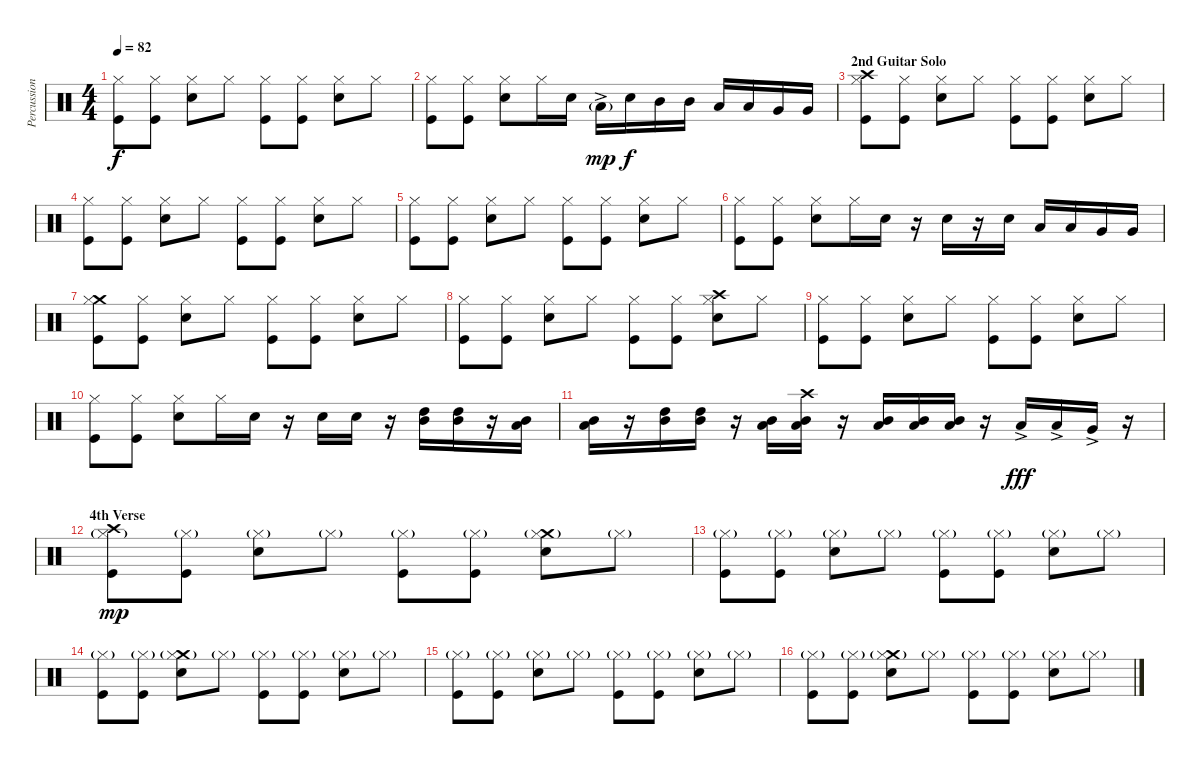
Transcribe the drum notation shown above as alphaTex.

\track ("Percussion" "Percussion") {instrument percussion}
\staff {score}
\articulation defaults
\ts (4 4)
\tempo 82
\clef neutral
\ks c
("Hi-Hat (closed)" "Kick (hit)").8{dy f} ("Hi-Hat (closed)" "Kick (hit)").8 ("Hi-Hat (closed)" "Electric Snare (hit)").8 "Hi-Hat (closed)".8 ("Hi-Hat (closed)" "Kick (hit)").8 ("Hi-Hat (closed)" "Kick (hit)").8 ("Hi-Hat (closed)" "Electric Snare (hit)").8 "Hi-Hat (closed)".8 |
("Hi-Hat (closed)" "Kick (hit)").8 ("Hi-Hat (closed)" "Kick (hit)").8 ("Hi-Hat (closed)" "Electric Snare (hit)").8 "Hi-Hat (closed)".16 "Electric Snare (hit)".16 "Low Floor Tom (hit)"{g ac}.16{dy mp} "Electric Snare (hit)".16{dy f} "Mid Tom (hit)".16 "Mid Tom (hit)".16 "Low Tom (hit)".16 "Low Tom (hit)".16 "Very Low Tom (hit)".16 "Very Low Tom (hit)".16 |
\section ("" "2nd Guitar Solo")
("Crash high (hit)" "Hi-Hat (closed)" "Kick (hit)").8 ("Hi-Hat (closed)" "Kick (hit)").8 ("Hi-Hat (closed)" "Electric Snare (hit)").8 "Hi-Hat (closed)".8 ("Hi-Hat (closed)" "Kick (hit)").8 ("Hi-Hat (closed)" "Kick (hit)").8 ("Hi-Hat (closed)" "Electric Snare (hit)").8 "Hi-Hat (closed)".8 |
("Hi-Hat (closed)" "Kick (hit)").8 ("Hi-Hat (closed)" "Kick (hit)").8 ("Hi-Hat (closed)" "Electric Snare (hit)").8 "Hi-Hat (closed)".8 ("Hi-Hat (closed)" "Kick (hit)").8 ("Hi-Hat (closed)" "Kick (hit)").8 ("Hi-Hat (closed)" "Electric Snare (hit)").8 "Hi-Hat (closed)".8 |
("Hi-Hat (closed)" "Kick (hit)").8 ("Hi-Hat (closed)" "Kick (hit)").8 ("Hi-Hat (closed)" "Electric Snare (hit)").8 "Hi-Hat (closed)".8 ("Hi-Hat (closed)" "Kick (hit)").8 ("Hi-Hat (closed)" "Kick (hit)").8 ("Hi-Hat (closed)" "Electric Snare (hit)").8 "Hi-Hat (closed)".8 |
("Hi-Hat (closed)" "Kick (hit)").8 ("Hi-Hat (closed)" "Kick (hit)").8 ("Hi-Hat (closed)" "Electric Snare (hit)").8 "Hi-Hat (closed)".16 "Electric Snare (hit)".16 r.16 "Electric Snare (hit)".16 r.16 "Electric Snare (hit)".16 "Low Tom (hit)".16 "Low Tom (hit)".16 "Very Low Tom (hit)".16 "Very Low Tom (hit)".16 |
("Crash medium (hit)" "Hi-Hat (closed)" "Kick (hit)").8 ("Hi-Hat (closed)" "Kick (hit)").8 ("Hi-Hat (closed)" "Electric Snare (hit)").8 "Hi-Hat (closed)".8 ("Hi-Hat (closed)" "Kick (hit)").8 ("Hi-Hat (closed)" "Kick (hit)").8 ("Hi-Hat (closed)" "Electric Snare (hit)").8 "Hi-Hat (closed)".8 |
("Hi-Hat (closed)" "Kick (hit)").8 ("Hi-Hat (closed)" "Kick (hit)").8 ("Hi-Hat (closed)" "Electric Snare (hit)").8 "Hi-Hat (closed)".8 ("Hi-Hat (closed)" "Kick (hit)").8 ("Hi-Hat (closed)" "Kick (hit)").8 ("Crash high (hit)" "Hi-Hat (closed)" "Electric Snare (hit)").8 "Hi-Hat (closed)".8 |
("Hi-Hat (closed)" "Kick (hit)").8 ("Hi-Hat (closed)" "Kick (hit)").8 ("Hi-Hat (closed)" "Electric Snare (hit)").8 "Hi-Hat (closed)".8 ("Hi-Hat (closed)" "Kick (hit)").8 ("Hi-Hat (closed)" "Kick (hit)").8 ("Hi-Hat (closed)" "Electric Snare (hit)").8 "Hi-Hat (closed)".8 |
("Hi-Hat (closed)" "Kick (hit)").8 ("Hi-Hat (closed)" "Kick (hit)").8 ("Hi-Hat (closed)" "Electric Snare (hit)").8 "Hi-Hat (closed)".16 "Electric Snare (hit)".16 r.16 "Electric Snare (hit)".16 "Electric Snare (hit)".16 r.16 ("High Tom (hit)" "Mid Tom (hit)").16 ("High Tom (hit)" "Mid Tom (hit)").16 r.16 ("Mid Tom (hit)" "Low Tom (hit)").16 |
("Mid Tom (hit)" "Low Tom (hit)").16 r.16 ("High Tom (hit)" "Mid Tom (hit)").16 ("High Tom (hit)" "Mid Tom (hit)").16 r.16 ("Mid Tom (hit)" "Low Tom (hit)").16 ("Crash high (hit)" "Mid Tom (hit)" "Low Tom (hit)").16 r.16 ("Low Tom (hit)" "Mid Tom (hit)").16 ("Low Tom (hit)" "Mid Tom (hit)").16 ("Low Tom (hit)" "Mid Tom (hit)").16 r.16 "Low Tom (hit)"{ac}.16{dy fff} "Low Tom (hit)"{ac}.16 "Very Low Tom (hit)"{ac}.16 r.16 |
\section ("" "4th Verse")
("Crash high (hit)" "Hi-Hat (closed)"{g} "Kick (hit)").8{dy mp} ("Hi-Hat (closed)"{g} "Kick (hit)").8 ("Hi-Hat (closed)"{g} "Electric Snare (hit)").8 "Hi-Hat (closed)"{g}.8 ("Hi-Hat (closed)"{g} "Kick (hit)").8 ("Hi-Hat (closed)"{g} "Kick (hit)").8 ("Crash medium (hit)" "Hi-Hat (closed)"{g} "Electric Snare (hit)").8 "Hi-Hat (closed)"{g}.8 |
("Hi-Hat (closed)"{g} "Kick (hit)").8 ("Hi-Hat (closed)"{g} "Kick (hit)").8 ("Hi-Hat (closed)"{g} "Electric Snare (hit)").8 "Hi-Hat (closed)"{g}.8 ("Hi-Hat (closed)"{g} "Kick (hit)").8 ("Hi-Hat (closed)"{g} "Kick (hit)").8 ("Hi-Hat (closed)"{g} "Electric Snare (hit)").8 "Hi-Hat (closed)"{g}.8 |
("Hi-Hat (closed)"{g} "Kick (hit)").8 ("Hi-Hat (closed)"{g} "Kick (hit)").8 ("Crash medium (hit)" "Hi-Hat (closed)"{g} "Electric Snare (hit)").8 "Hi-Hat (closed)"{g}.8 ("Hi-Hat (closed)"{g} "Kick (hit)").8 ("Hi-Hat (closed)"{g} "Kick (hit)").8 ("Hi-Hat (closed)"{g} "Electric Snare (hit)").8 "Hi-Hat (closed)"{g}.8 |
("Hi-Hat (closed)"{g} "Kick (hit)").8 ("Hi-Hat (closed)"{g} "Kick (hit)").8 ("Hi-Hat (closed)"{g} "Electric Snare (hit)").8 "Hi-Hat (closed)"{g}.8 ("Hi-Hat (closed)"{g} "Kick (hit)").8 ("Hi-Hat (closed)"{g} "Kick (hit)").8 ("Hi-Hat (closed)"{g} "Electric Snare (hit)").8 "Hi-Hat (closed)"{g}.8 |
("Hi-Hat (closed)"{g} "Kick (hit)").8 ("Hi-Hat (closed)"{g} "Kick (hit)").8 ("Crash medium (hit)" "Hi-Hat (closed)"{g} "Electric Snare (hit)").8 "Hi-Hat (closed)"{g}.8 ("Hi-Hat (closed)"{g} "Kick (hit)").8 ("Hi-Hat (closed)"{g} "Kick (hit)").8 ("Hi-Hat (closed)"{g} "Electric Snare (hit)").8 "Hi-Hat (closed)"{g}.8
